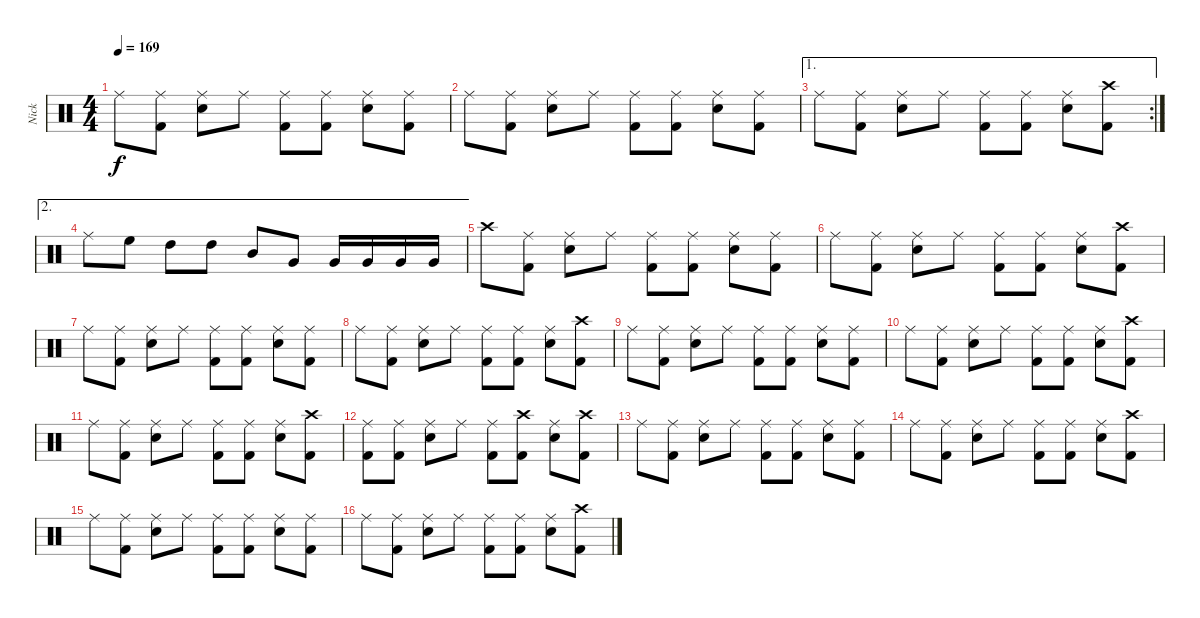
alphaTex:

\track ("Nick" "Nick") {instrument percussion}
\staff {score}
\articulation defaults
\ts (4 4)
\tempo 169
\clef neutral
\ks c "Ride (middle)".8{dy f}
("Ride (middle)" "Kick (hit) 2").8 ("Ride (middle)" "Snare (hit) 2").8 "Ride (middle)".8 ("Ride (middle)" "Kick (hit) 2").8 ("Ride (middle)" "Kick (hit) 2").8 ("Ride (middle)" "Snare (hit) 2").8 ("Ride (middle)" "Kick (hit) 2").8 |
"Ride (middle)".8 ("Ride (middle)" "Kick (hit) 2").8 ("Ride (middle)" "Snare (hit) 2").8 "Ride (middle)".8 ("Ride (middle)" "Kick (hit) 2").8 ("Ride (middle)" "Kick (hit) 2").8 ("Ride (middle)" "Snare (hit) 2").8 ("Ride (middle)" "Kick (hit) 2").8 |
\ae 1
\rc 2 "Ride (middle)".8
("Ride (middle)" "Kick (hit) 2").8 ("Ride (middle)" "Snare (hit) 2").8 "Ride (middle)".8 ("Ride (middle)" "Kick (hit) 2").8 ("Ride (middle)" "Kick (hit) 2").8 ("Ride (middle)" "Snare (hit) 2").8 ("Crash high (hit)" "Kick (hit) 2").8 |
\ae 2 "Ride (middle)".8 "High Floor Tom (hit)".8 "High Tom (hit)".8 "High Tom (hit)".8 "Mid Tom (hit)".8 "Very Low Tom (hit)".8 "Very Low Tom (hit)".16 "Very Low Tom (hit)".16 "Very Low Tom (hit)".16 "Very Low Tom (hit)".16
|
"Crash high (hit)".8 ("Ride (middle)" "Kick (hit) 2").8 ("Ride (middle)" "Snare (hit) 2").8 "Ride (middle)".8 ("Ride (middle)" "Kick (hit) 2").8 ("Ride (middle)" "Kick (hit) 2").8 ("Ride (middle)" "Snare (hit) 2").8 ("Ride (middle)" "Kick (hit) 2").8 |
"Ride (middle)".8 ("Ride (middle)" "Kick (hit) 2").8 ("Ride (middle)" "Snare (hit) 2").8 "Ride (middle)".8 ("Ride (middle)" "Kick (hit) 2").8 ("Ride (middle)" "Kick (hit) 2").8 ("Ride (middle)" "Snare (hit) 2").8 ("Crash high (hit)" "Kick (hit) 2").8 |
"Ride (middle)".8 ("Ride (middle)" "Kick (hit) 2").8 ("Ride (middle)" "Snare (hit) 2").8 "Ride (middle)".8 ("Ride (middle)" "Kick (hit) 2").8 ("Ride (middle)" "Kick (hit) 2").8 ("Ride (middle)" "Snare (hit) 2").8 ("Ride (middle)" "Kick (hit) 2").8 |
"Ride (middle)".8 ("Ride (middle)" "Kick (hit) 2").8 ("Ride (middle)" "Snare (hit) 2").8 "Ride (middle)".8 ("Ride (middle)" "Kick (hit) 2").8 ("Ride (middle)" "Kick (hit) 2").8 ("Ride (middle)" "Snare (hit) 2").8 ("Crash high (hit)" "Kick (hit) 2").8 |
"Ride (middle)".8 ("Ride (middle)" "Kick (hit) 2").8 ("Ride (middle)" "Snare (hit) 2").8 "Ride (middle)".8 ("Ride (middle)" "Kick (hit) 2").8 ("Ride (middle)" "Kick (hit) 2").8 ("Ride (middle)" "Snare (hit) 2").8 ("Ride (middle)" "Kick (hit) 2").8 |
"Ride (middle)".8 ("Ride (middle)" "Kick (hit) 2").8 ("Ride (middle)" "Snare (hit) 2").8 "Ride (middle)".8 ("Ride (middle)" "Kick (hit) 2").8 ("Ride (middle)" "Kick (hit) 2").8 ("Ride (middle)" "Snare (hit) 2").8 ("Crash high (hit)" "Kick (hit) 2").8 |
"Ride (middle)".8 ("Ride (middle)" "Kick (hit) 2").8 ("Ride (middle)" "Snare (hit) 2").8 "Ride (middle)".8 ("Ride (middle)" "Kick (hit) 2").8 ("Ride (middle)" "Kick (hit) 2").8 ("Ride (middle)" "Snare (hit) 2").8 ("Crash high (hit)" "Kick (hit) 2").8 |
("Ride (middle)" "Kick (hit) 2").8 ("Ride (middle)" "Kick (hit) 2").8 ("Ride (middle)" "Snare (hit) 2").8 "Ride (middle)".8 ("Ride (middle)" "Kick (hit) 2").8 ("Crash high (hit)" "Kick (hit) 2").8 ("Ride (middle)" "Snare (hit) 2").8 ("Crash high (hit)" "Kick (hit) 2").8 |
"Ride (middle)".8 ("Ride (middle)" "Kick (hit) 2").8 ("Ride (middle)" "Snare (hit) 2").8 "Ride (middle)".8 ("Ride (middle)" "Kick (hit) 2").8 ("Ride (middle)" "Kick (hit) 2").8 ("Ride (middle)" "Snare (hit) 2").8 ("Ride (middle)" "Kick (hit) 2").8 |
"Ride (middle)".8 ("Ride (middle)" "Kick (hit) 2").8 ("Ride (middle)" "Snare (hit) 2").8 "Ride (middle)".8 ("Ride (middle)" "Kick (hit) 2").8 ("Ride (middle)" "Kick (hit) 2").8 ("Ride (middle)" "Snare (hit) 2").8 ("Crash high (hit)" "Kick (hit) 2").8 |
"Ride (middle)".8 ("Ride (middle)" "Kick (hit) 2").8 ("Ride (middle)" "Snare (hit) 2").8 "Ride (middle)".8 ("Ride (middle)" "Kick (hit) 2").8 ("Ride (middle)" "Kick (hit) 2").8 ("Ride (middle)" "Snare (hit) 2").8 ("Ride (middle)" "Kick (hit) 2").8 |
"Ride (middle)".8 ("Ride (middle)" "Kick (hit) 2").8 ("Ride (middle)" "Snare (hit) 2").8 "Ride (middle)".8 ("Ride (middle)" "Kick (hit) 2").8 ("Ride (middle)" "Kick (hit) 2").8 ("Ride (middle)" "Snare (hit) 2").8 ("Crash high (hit)" "Kick (hit) 2").8
